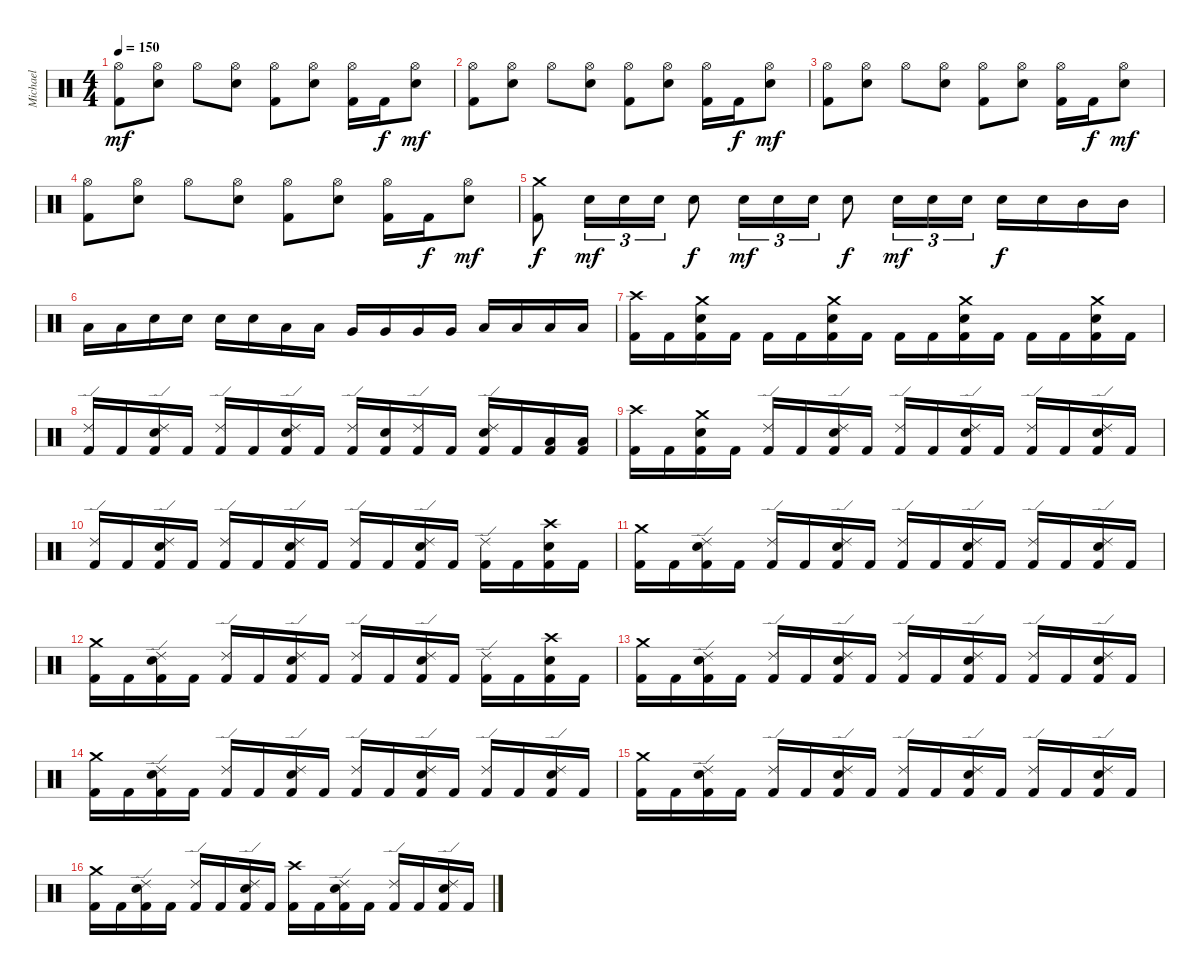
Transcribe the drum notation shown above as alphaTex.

\track ("Michael" "Michael") {instrument percussion}
\staff {score}
\articulation defaults
\ts (4 4)
\tempo 150
\clef neutral
\ks c
("Hi-Hat (open)" "Kick (hit) 2").8{dy mf} ("Hi-Hat (open)" "Electric Snare (hit)").8 "Hi-Hat (open)".8 ("Hi-Hat (open)" "Electric Snare (hit)").8 ("Hi-Hat (open)" "Kick (hit) 2").8 ("Hi-Hat (open)" "Electric Snare (hit)").8 ("Hi-Hat (open)" "Kick (hit) 2").16 "Kick (hit) 2".16{dy f} ("Hi-Hat (open)" "Electric Snare (hit)").8{dy mf} |
("Hi-Hat (open)" "Kick (hit) 2").8 ("Hi-Hat (open)" "Electric Snare (hit)").8 "Hi-Hat (open)".8 ("Hi-Hat (open)" "Electric Snare (hit)").8 ("Hi-Hat (open)" "Kick (hit) 2").8 ("Hi-Hat (open)" "Electric Snare (hit)").8 ("Hi-Hat (open)" "Kick (hit) 2").16 "Kick (hit) 2".16{dy f} ("Hi-Hat (open)" "Electric Snare (hit)").8{dy mf} |
("Hi-Hat (open)" "Kick (hit) 2").8 ("Hi-Hat (open)" "Electric Snare (hit)").8 "Hi-Hat (open)".8 ("Hi-Hat (open)" "Electric Snare (hit)").8 ("Hi-Hat (open)" "Kick (hit) 2").8 ("Hi-Hat (open)" "Electric Snare (hit)").8 ("Hi-Hat (open)" "Kick (hit) 2").16 "Kick (hit) 2".16{dy f} ("Hi-Hat (open)" "Electric Snare (hit)").8{dy mf} |
("Hi-Hat (open)" "Kick (hit) 2").8 ("Hi-Hat (open)" "Electric Snare (hit)").8 "Hi-Hat (open)".8 ("Hi-Hat (open)" "Electric Snare (hit)").8 ("Hi-Hat (open)" "Kick (hit) 2").8 ("Hi-Hat (open)" "Electric Snare (hit)").8 ("Hi-Hat (open)" "Kick (hit) 2").16 "Kick (hit) 2".16{dy f} ("Hi-Hat (open)" "Electric Snare (hit)").8{dy mf} |
("Crash medium (hit)" "Kick (hit) 2").8{dy f} "Electric Snare (hit)".16{tu (3 2) dy mf} "Electric Snare (hit)".16{tu (3 2)} "Electric Snare (hit)".16{tu (3 2)} "Electric Snare (hit)".8{dy f} "Electric Snare (hit)".16{tu (3 2) dy mf} "Electric Snare (hit)".16{tu (3 2)} "Electric Snare (hit)".16{tu (3 2)} "Electric Snare (hit)".8{dy f} "Electric Snare (hit)".16{tu (3 2) dy mf} "Electric Snare (hit)".16{tu (3 2)} "Electric Snare (hit)".16{tu (3 2)} "Electric Snare (hit)".16{dy f} "Electric Snare (hit)".16 "Mid Tom (hit)".16 "Mid Tom (hit)".16 |
"Low Tom (hit)".16 "Low Tom (hit)".16 "Electric Snare (hit)".16 "Electric Snare (hit)".16 "Electric Snare (hit)".16 "Electric Snare (hit)".16 "Low Tom (hit)".16 "Low Tom (hit)".16 "Very Low Tom (hit)".16 "Very Low Tom (hit)".16 "Very Low Tom (hit)".16 "Very Low Tom (hit)".16 "Low Floor Tom (hit)".16 "Low Floor Tom (hit)".16 "Low Floor Tom (hit)".16 "Low Floor Tom (hit)".16 |
("Crash high (hit)" "Kick (hit) 2").16 "Kick (hit) 2".16 ("Crash medium (hit)" "Electric Snare (hit)" "Kick (hit) 2").16 "Kick (hit) 2".16 "Kick (hit) 2".16 "Kick (hit) 2".16 ("Crash medium (hit)" "Electric Snare (hit)" "Kick (hit) 2").16 "Kick (hit) 2".16 "Kick (hit) 2".16 "Kick (hit) 2".16 ("Crash medium (hit)" "Electric Snare (hit)" "Kick (hit) 2").16 "Kick (hit) 2".16 "Kick (hit) 2".16 "Kick (hit) 2".16 ("Crash medium (hit)" "Electric Snare (hit)" "Kick (hit) 2").16 "Kick (hit) 2".16 |
("Ride (edge) 2" "Kick (hit) 2").16 "Kick (hit) 2".16 ("Ride (edge) 2" "Electric Snare (hit)" "Kick (hit) 2").16 "Kick (hit) 2".16 ("Ride (edge) 2" "Kick (hit) 2").16 "Kick (hit) 2".16 ("Ride (edge) 2" "Electric Snare (hit)" "Kick (hit) 2").16 "Kick (hit) 2".16 ("Ride (edge) 2" "Kick (hit) 2").16 ("Electric Snare (hit)" "Kick (hit) 2").16 ("Ride (edge) 2" "Kick (hit) 2").16 "Kick (hit) 2".16 ("Ride (edge) 2" "Electric Snare (hit)" "Kick (hit) 2").16 "Kick (hit) 2".16 ("Low Tom (hit)" "Kick (hit) 2").16 ("Low Tom (hit)" "Kick (hit) 2").16 |
("Crash high (hit)" "Kick (hit) 2").16 "Kick (hit) 2".16 ("Crash medium (hit)" "Electric Snare (hit)" "Kick (hit) 2").16 "Kick (hit) 2".16 ("Ride (edge) 2" "Kick (hit) 2").16 "Kick (hit) 2".16 ("Ride (edge) 2" "Electric Snare (hit)" "Kick (hit) 2").16 "Kick (hit) 2".16 ("Ride (edge) 2" "Kick (hit) 2").16 "Kick (hit) 2".16 ("Ride (edge) 2" "Electric Snare (hit)" "Kick (hit) 2").16 "Kick (hit) 2".16 ("Ride (edge) 2" "Kick (hit) 2").16 "Kick (hit) 2".16 ("Ride (edge) 2" "Electric Snare (hit)" "Kick (hit) 2").16 "Kick (hit) 2".16 |
("Ride (edge) 2" "Kick (hit) 2").16 "Kick (hit) 2".16 ("Ride (edge) 2" "Electric Snare (hit)" "Kick (hit) 2").16 "Kick (hit) 2".16 ("Ride (edge) 2" "Kick (hit) 2").16 "Kick (hit) 2".16 ("Ride (edge) 2" "Electric Snare (hit)" "Kick (hit) 2").16 "Kick (hit) 2".16 ("Ride (edge) 2" "Kick (hit) 2").16 "Kick (hit) 2".16 ("Ride (edge) 2" "Electric Snare (hit)" "Kick (hit) 2").16 "Kick (hit) 2".16 ("Ride (edge) 2" "Kick (hit) 2").16 "Kick (hit) 2".16 ("Crash high (hit)" "Electric Snare (hit)" "Kick (hit) 2").16 "Kick (hit) 2".16 |
("Crash medium (hit)" "Kick (hit) 2").16 "Kick (hit) 2".16 ("Ride (edge) 2" "Electric Snare (hit)" "Kick (hit) 2").16 "Kick (hit) 2".16 ("Ride (edge) 2" "Kick (hit) 2").16 "Kick (hit) 2".16 ("Ride (edge) 2" "Electric Snare (hit)" "Kick (hit) 2").16 "Kick (hit) 2".16 ("Ride (edge) 2" "Kick (hit) 2").16 "Kick (hit) 2".16 ("Ride (edge) 2" "Electric Snare (hit)" "Kick (hit) 2").16 "Kick (hit) 2".16 ("Ride (edge) 2" "Kick (hit) 2").16 "Kick (hit) 2".16 ("Ride (edge) 2" "Electric Snare (hit)" "Kick (hit) 2").16 "Kick (hit) 2".16 |
("Crash medium (hit)" "Kick (hit) 2").16 "Kick (hit) 2".16 ("Ride (edge) 2" "Electric Snare (hit)" "Kick (hit) 2").16 "Kick (hit) 2".16 ("Ride (edge) 2" "Kick (hit) 2").16 "Kick (hit) 2".16 ("Ride (edge) 2" "Electric Snare (hit)" "Kick (hit) 2").16 "Kick (hit) 2".16 ("Ride (edge) 2" "Kick (hit) 2").16 "Kick (hit) 2".16 ("Ride (edge) 2" "Electric Snare (hit)" "Kick (hit) 2").16 "Kick (hit) 2".16 ("Ride (edge) 2" "Kick (hit) 2").16 "Kick (hit) 2".16 ("Crash high (hit)" "Electric Snare (hit)" "Kick (hit) 2").16 "Kick (hit) 2".16 |
("Crash medium (hit)" "Kick (hit) 2").16 "Kick (hit) 2".16 ("Ride (edge) 2" "Electric Snare (hit)" "Kick (hit) 2").16 "Kick (hit) 2".16 ("Ride (edge) 2" "Kick (hit) 2").16 "Kick (hit) 2".16 ("Ride (edge) 2" "Electric Snare (hit)" "Kick (hit) 2").16 "Kick (hit) 2".16 ("Ride (edge) 2" "Kick (hit) 2").16 "Kick (hit) 2".16 ("Ride (edge) 2" "Electric Snare (hit)" "Kick (hit) 2").16 "Kick (hit) 2".16 ("Ride (edge) 2" "Kick (hit) 2").16 "Kick (hit) 2".16 ("Ride (edge) 2" "Electric Snare (hit)" "Kick (hit) 2").16 "Kick (hit) 2".16 |
("Crash medium (hit)" "Kick (hit) 2").16 "Kick (hit) 2".16 ("Ride (edge) 2" "Electric Snare (hit)" "Kick (hit) 2").16 "Kick (hit) 2".16 ("Ride (edge) 2" "Kick (hit) 2").16 "Kick (hit) 2".16 ("Ride (edge) 2" "Electric Snare (hit)" "Kick (hit) 2").16 "Kick (hit) 2".16 ("Ride (edge) 2" "Kick (hit) 2").16 "Kick (hit) 2".16 ("Ride (edge) 2" "Electric Snare (hit)" "Kick (hit) 2").16 "Kick (hit) 2".16 ("Ride (edge) 2" "Kick (hit) 2").16 "Kick (hit) 2".16 ("Ride (edge) 2" "Electric Snare (hit)" "Kick (hit) 2").16 "Kick (hit) 2".16 |
("Crash medium (hit)" "Kick (hit) 2").16 "Kick (hit) 2".16 ("Ride (edge) 2" "Electric Snare (hit)" "Kick (hit) 2").16 "Kick (hit) 2".16 ("Ride (edge) 2" "Kick (hit) 2").16 "Kick (hit) 2".16 ("Ride (edge) 2" "Electric Snare (hit)" "Kick (hit) 2").16 "Kick (hit) 2".16 ("Ride (edge) 2" "Kick (hit) 2").16 "Kick (hit) 2".16 ("Ride (edge) 2" "Electric Snare (hit)" "Kick (hit) 2").16 "Kick (hit) 2".16 ("Ride (edge) 2" "Kick (hit) 2").16 "Kick (hit) 2".16 ("Ride (edge) 2" "Electric Snare (hit)" "Kick (hit) 2").16 "Kick (hit) 2".16 |
("Crash medium (hit)" "Kick (hit) 2").16 "Kick (hit) 2".16 ("Ride (edge) 2" "Electric Snare (hit)" "Kick (hit) 2").16 "Kick (hit) 2".16 ("Ride (edge) 2" "Kick (hit) 2").16 "Kick (hit) 2".16 ("Ride (edge) 2" "Electric Snare (hit)" "Kick (hit) 2").16 "Kick (hit) 2".16 ("Crash high (hit)" "Kick (hit) 2").16 "Kick (hit) 2".16 ("Ride (edge) 2" "Electric Snare (hit)" "Kick (hit) 2").16 "Kick (hit) 2".16 ("Ride (edge) 2" "Kick (hit) 2").16 "Kick (hit) 2".16 ("Ride (edge) 2" "Electric Snare (hit)" "Kick (hit) 2").16 "Kick (hit) 2".16
